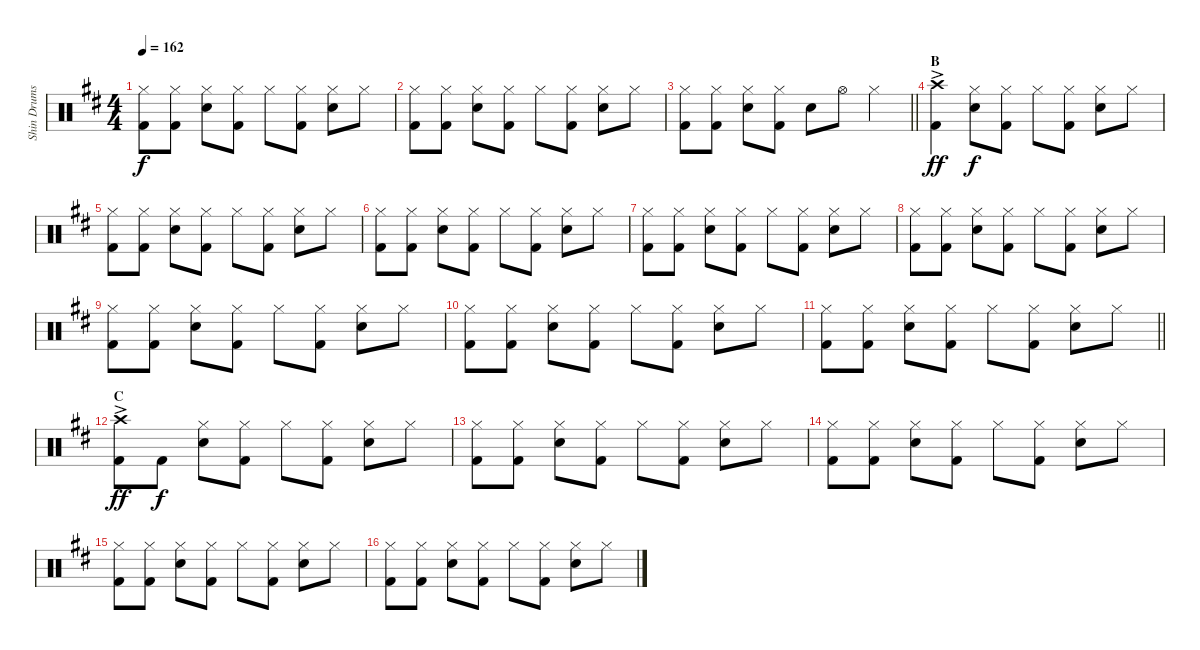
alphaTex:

\track ("Shin Drums" "Shin Drums") {instrument percussion}
\staff {score}
\articulation defaults
\ts (4 4)
\tempo 162
\clef neutral
\ks d
("Hi-Hat (closed)" "Kick (hit) 2").8{dy f} ("Hi-Hat (closed)" "Kick (hit) 2").8 ("Hi-Hat (closed)" "Snare (hit) 2").8 ("Hi-Hat (closed)" "Kick (hit) 2").8 "Hi-Hat (closed)".8 ("Hi-Hat (closed)" "Kick (hit) 2").8 ("Hi-Hat (closed)" "Snare (hit) 2").8 "Hi-Hat (closed)".8 |
("Hi-Hat (closed)" "Kick (hit) 2").8 ("Hi-Hat (closed)" "Kick (hit) 2").8 ("Hi-Hat (closed)" "Snare (hit) 2").8 ("Hi-Hat (closed)" "Kick (hit) 2").8 "Hi-Hat (closed)".8 ("Hi-Hat (closed)" "Kick (hit) 2").8 ("Hi-Hat (closed)" "Snare (hit) 2").8 "Hi-Hat (closed)".8 |
\barLineRight lightlight
("Hi-Hat (closed)" "Kick (hit) 2").8 ("Hi-Hat (closed)" "Kick (hit) 2").8 ("Hi-Hat (closed)" "Snare (hit) 2").8 ("Hi-Hat (closed)" "Kick (hit) 2").8 "Snare (hit) 2".8 "Hi-Hat (open)".8 "Hi-Hat (closed)".4 |
\section ("" "B")
("Crash high (hit)"{ac} "Kick (hit) 2").4{dy ff} ("Hi-Hat (closed)" "Snare (hit) 2").8{dy f} ("Hi-Hat (closed)" "Kick (hit) 2").8 "Hi-Hat (closed)".8 ("Hi-Hat (closed)" "Kick (hit) 2").8 ("Hi-Hat (closed)" "Snare (hit) 2").8 "Hi-Hat (closed)".8 |
("Hi-Hat (closed)" "Kick (hit) 2").8 ("Hi-Hat (closed)" "Kick (hit) 2").8 ("Hi-Hat (closed)" "Snare (hit) 2").8 ("Hi-Hat (closed)" "Kick (hit) 2").8 "Hi-Hat (closed)".8 ("Hi-Hat (closed)" "Kick (hit) 2").8 ("Hi-Hat (closed)" "Snare (hit) 2").8 "Hi-Hat (closed)".8 |
("Hi-Hat (closed)" "Kick (hit) 2").8 ("Hi-Hat (closed)" "Kick (hit) 2").8 ("Hi-Hat (closed)" "Snare (hit) 2").8 ("Hi-Hat (closed)" "Kick (hit) 2").8 "Hi-Hat (closed)".8 ("Hi-Hat (closed)" "Kick (hit) 2").8 ("Hi-Hat (closed)" "Snare (hit) 2").8 "Hi-Hat (closed)".8 |
("Hi-Hat (closed)" "Kick (hit) 2").8 ("Hi-Hat (closed)" "Kick (hit) 2").8 ("Hi-Hat (closed)" "Snare (hit) 2").8 ("Hi-Hat (closed)" "Kick (hit) 2").8 "Hi-Hat (closed)".8 ("Hi-Hat (closed)" "Kick (hit) 2").8 ("Hi-Hat (closed)" "Snare (hit) 2").8 "Hi-Hat (closed)".8 |
("Hi-Hat (closed)" "Kick (hit) 2").8 ("Hi-Hat (closed)" "Kick (hit) 2").8 ("Hi-Hat (closed)" "Snare (hit) 2").8 ("Hi-Hat (closed)" "Kick (hit) 2").8 "Hi-Hat (closed)".8 ("Hi-Hat (closed)" "Kick (hit) 2").8 ("Hi-Hat (closed)" "Snare (hit) 2").8 "Hi-Hat (closed)".8 |
("Hi-Hat (closed)" "Kick (hit) 2").8 ("Hi-Hat (closed)" "Kick (hit) 2").8 ("Hi-Hat (closed)" "Snare (hit) 2").8 ("Hi-Hat (closed)" "Kick (hit) 2").8 "Hi-Hat (closed)".8 ("Hi-Hat (closed)" "Kick (hit) 2").8 ("Hi-Hat (closed)" "Snare (hit) 2").8 "Hi-Hat (closed)".8 |
("Hi-Hat (closed)" "Kick (hit) 2").8 ("Hi-Hat (closed)" "Kick (hit) 2").8 ("Hi-Hat (closed)" "Snare (hit) 2").8 ("Hi-Hat (closed)" "Kick (hit) 2").8 "Hi-Hat (closed)".8 ("Hi-Hat (closed)" "Kick (hit) 2").8 ("Hi-Hat (closed)" "Snare (hit) 2").8 "Hi-Hat (closed)".8 |
\barLineRight lightlight
("Hi-Hat (closed)" "Kick (hit) 2").8 ("Hi-Hat (closed)" "Kick (hit) 2").8 ("Hi-Hat (closed)" "Snare (hit) 2").8 ("Hi-Hat (closed)" "Kick (hit) 2").8 "Hi-Hat (closed)".8 ("Hi-Hat (closed)" "Kick (hit) 2").8 ("Hi-Hat (closed)" "Snare (hit) 2").8 "Hi-Hat (closed)".8 |
\section ("" "C")
("Crash high (hit)"{ac} "Kick (hit) 2").8{dy ff} "Kick (hit) 2".8{dy f} ("Hi-Hat (closed)" "Snare (hit) 2").8 ("Hi-Hat (closed)" "Kick (hit) 2").8 "Hi-Hat (closed)".8 ("Hi-Hat (closed)" "Kick (hit) 2").8 ("Hi-Hat (closed)" "Snare (hit) 2").8 "Hi-Hat (closed)".8 |
("Hi-Hat (closed)" "Kick (hit) 2").8 ("Hi-Hat (closed)" "Kick (hit) 2").8 ("Hi-Hat (closed)" "Snare (hit) 2").8 ("Hi-Hat (closed)" "Kick (hit) 2").8 "Hi-Hat (closed)".8 ("Hi-Hat (closed)" "Kick (hit) 2").8 ("Hi-Hat (closed)" "Snare (hit) 2").8 "Hi-Hat (closed)".8 |
("Hi-Hat (closed)" "Kick (hit) 2").8 ("Hi-Hat (closed)" "Kick (hit) 2").8 ("Hi-Hat (closed)" "Snare (hit) 2").8 ("Hi-Hat (closed)" "Kick (hit) 2").8 "Hi-Hat (closed)".8 ("Hi-Hat (closed)" "Kick (hit) 2").8 ("Hi-Hat (closed)" "Snare (hit) 2").8 "Hi-Hat (closed)".8 |
("Hi-Hat (closed)" "Kick (hit) 2").8 ("Hi-Hat (closed)" "Kick (hit) 2").8 ("Hi-Hat (closed)" "Snare (hit) 2").8 ("Hi-Hat (closed)" "Kick (hit) 2").8 "Hi-Hat (closed)".8 ("Hi-Hat (closed)" "Kick (hit) 2").8 ("Hi-Hat (closed)" "Snare (hit) 2").8 "Hi-Hat (closed)".8 |
("Hi-Hat (closed)" "Kick (hit) 2").8 ("Hi-Hat (closed)" "Kick (hit) 2").8 ("Hi-Hat (closed)" "Snare (hit) 2").8 ("Hi-Hat (closed)" "Kick (hit) 2").8 "Hi-Hat (closed)".8 ("Hi-Hat (closed)" "Kick (hit) 2").8 ("Hi-Hat (closed)" "Snare (hit) 2").8 "Hi-Hat (closed)".8
